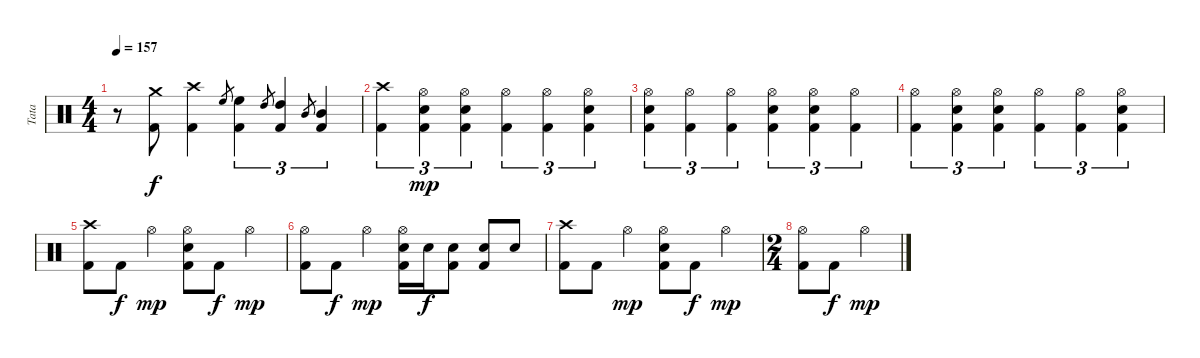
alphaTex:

\track ("Tata" "Tata") {instrument percussion}
\staff {score}
\articulation defaults
\ts (4 4)
\tempo 157
\clef neutral
\ks c
r.8{dy f} ("Kick (hit) 2" "Crash medium (hit)").8 ("Kick (hit) 2" "Crash high (hit)").4 "High Floor Tom (hit)".8{gr} ("Kick (hit) 2" "High Floor Tom (hit)").4{tu (3 2)} "High Tom (hit)".8{gr} ("Kick (hit) 2" "High Tom (hit)").4{tu (3 2)} "Mid Tom (hit)".8{gr} ("Kick (hit) 2" "Mid Tom (hit)").4{tu (3 2)} |
("Kick (hit) 2" "Crash high (hit)").4{tu (3 2)} ("Kick (hit) 2" "Electric Snare (hit)" "Hi-Hat (open)").4{tu (3 2) dy mp} ("Kick (hit) 2" "Electric Snare (hit)" "Hi-Hat (open)").4{tu (3 2)} ("Kick (hit) 2" "Hi-Hat (open)").4{tu (3 2)} ("Kick (hit) 2" "Hi-Hat (open)").4{tu (3 2)} ("Kick (hit) 2" "Electric Snare (hit)" "Hi-Hat (open)").4{tu (3 2)} |
("Kick (hit) 2" "Electric Snare (hit)" "Hi-Hat (open)").4{tu (3 2)} ("Kick (hit) 2" "Hi-Hat (open)").4{tu (3 2)} ("Kick (hit) 2" "Hi-Hat (open)").4{tu (3 2)} ("Kick (hit) 2" "Electric Snare (hit)" "Hi-Hat (open)").4{tu (3 2)} ("Kick (hit) 2" "Electric Snare (hit)" "Hi-Hat (open)").4{tu (3 2)} ("Kick (hit) 2" "Hi-Hat (open)").4{tu (3 2)} |
("Kick (hit) 2" "Hi-Hat (open)").4{tu (3 2)} ("Kick (hit) 2" "Electric Snare (hit)" "Hi-Hat (open)").4{tu (3 2)} ("Kick (hit) 2" "Electric Snare (hit)" "Hi-Hat (open)").4{tu (3 2)} ("Kick (hit) 2" "Hi-Hat (open)").4{tu (3 2)} ("Kick (hit) 2" "Hi-Hat (open)").4{tu (3 2)} ("Kick (hit) 2" "Electric Snare (hit)" "Hi-Hat (open)").4{tu (3 2)} |
("Kick (hit) 2" "Crash high (hit)").8 "Kick (hit) 2".8{dy f} "Hi-Hat (open)".4{dy mp} ("Kick (hit) 2" "Electric Snare (hit)" "Hi-Hat (open)").8 "Kick (hit) 2".8{dy f} "Hi-Hat (open)".4{dy mp} |
("Kick (hit) 2" "Hi-Hat (open)").8 "Kick (hit) 2".8{dy f} "Hi-Hat (open)".4{dy mp} ("Kick (hit) 2" "Electric Snare (hit)" "Hi-Hat (open)").16 "Electric Snare (hit)".16{dy f} ("Kick (hit) 2" "Electric Snare (hit)").8 ("Kick (hit) 2" "Electric Snare (hit)").8 "Electric Snare (hit)".8 |
("Kick (hit) 2" "Crash high (hit)").8 "Kick (hit) 2".8 "Hi-Hat (open)".4{dy mp} ("Kick (hit) 2" "Electric Snare (hit)" "Hi-Hat (open)").8 "Kick (hit) 2".8{dy f} "Hi-Hat (open)".4{dy mp} |
\ts (2 4)
("Kick (hit) 2" "Hi-Hat (open)").8 "Kick (hit) 2".8{dy f} "Hi-Hat (open)".4{dy mp}
